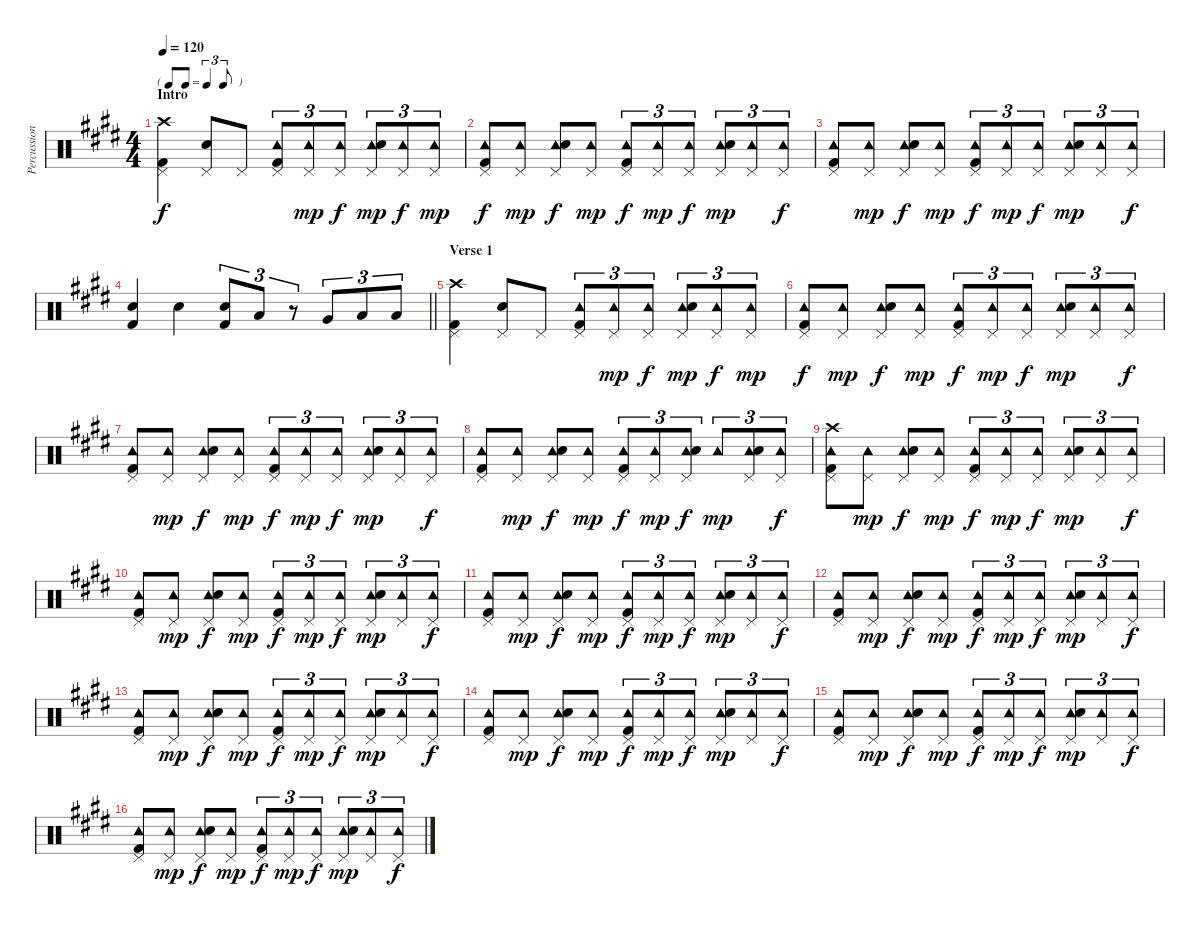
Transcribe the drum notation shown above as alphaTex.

\track ("Percussion" "Percussion") {instrument percussion}
\staff {score}
\articulation defaults
\ts (4 4)
\tf triplet8th
\section ("" "Intro")
\tempo 120
\clef neutral
\ks e
("Crash high (hit)" "Pedal Hi-Hat (hit)" "Kick (hit) 2").4{dy f} ("Pedal Hi-Hat (hit)" "Electric Snare (hit)").8 "Pedal Hi-Hat (hit)".8 ("Tambourine (hit)" "Pedal Hi-Hat (hit)" "Kick (hit) 2").8{tu (3 2)} ("Tambourine (hit)" "Pedal Hi-Hat (hit)").8{tu (3 2) dy mp} ("Tambourine (hit)" "Pedal Hi-Hat (hit)").8{tu (3 2) dy f} ("Tambourine (hit)" "Pedal Hi-Hat (hit)" "Electric Snare (hit)").8{tu (3 2) dy mp} ("Tambourine (hit)" "Pedal Hi-Hat (hit)").8{tu (3 2) dy f} ("Tambourine (hit)" "Pedal Hi-Hat (hit)").8{tu (3 2) dy mp} |
("Tambourine (hit)" "Pedal Hi-Hat (hit)" "Kick (hit) 2").8{dy f} ("Tambourine (hit)" "Pedal Hi-Hat (hit)").8{dy mp} ("Tambourine (hit)" "Pedal Hi-Hat (hit)" "Electric Snare (hit)").8{dy f} ("Tambourine (hit)" "Pedal Hi-Hat (hit)").8{dy mp} ("Tambourine (hit)" "Pedal Hi-Hat (hit)" "Kick (hit) 2").8{tu (3 2) dy f} ("Tambourine (hit)" "Pedal Hi-Hat (hit)").8{tu (3 2) dy mp} ("Tambourine (hit)" "Pedal Hi-Hat (hit)").8{tu (3 2) dy f} ("Tambourine (hit)" "Pedal Hi-Hat (hit)" "Electric Snare (hit)").8{tu (3 2) dy mp} ("Tambourine (hit)" "Pedal Hi-Hat (hit)").8{tu (3 2)} ("Tambourine (hit)" "Pedal Hi-Hat (hit)").8{tu (3 2) dy f} |
("Tambourine (hit)" "Pedal Hi-Hat (hit)" "Kick (hit) 2").8 ("Tambourine (hit)" "Pedal Hi-Hat (hit)").8{dy mp} ("Tambourine (hit)" "Pedal Hi-Hat (hit)" "Electric Snare (hit)").8{dy f} ("Tambourine (hit)" "Pedal Hi-Hat (hit)").8{dy mp} ("Tambourine (hit)" "Pedal Hi-Hat (hit)" "Kick (hit) 2").8{tu (3 2) dy f} ("Tambourine (hit)" "Pedal Hi-Hat (hit)").8{tu (3 2) dy mp} ("Tambourine (hit)" "Pedal Hi-Hat (hit)").8{tu (3 2) dy f} ("Tambourine (hit)" "Pedal Hi-Hat (hit)" "Electric Snare (hit)").8{tu (3 2) dy mp} ("Tambourine (hit)" "Pedal Hi-Hat (hit)").8{tu (3 2)} ("Tambourine (hit)" "Pedal Hi-Hat (hit)").8{tu (3 2) dy f} |
\barLineRight lightlight
("Electric Snare (hit)" "Kick (hit) 2").4 "Electric Snare (hit)".4 ("Electric Snare (hit)" "Kick (hit) 2").8{tu (3 2)} "Low Tom (hit)".8{tu (3 2)} r.8{tu (3 2)} "Very Low Tom (hit)".8{tu (3 2)} "Low Floor Tom (hit)".8{tu (3 2)} "Low Floor Tom (hit)".8{tu (3 2)} |
\section ("" "Verse 1")
("Crash high (hit)" "Pedal Hi-Hat (hit)" "Kick (hit) 2").4 ("Pedal Hi-Hat (hit)" "Electric Snare (hit)").8 "Pedal Hi-Hat (hit)".8 ("Tambourine (hit)" "Pedal Hi-Hat (hit)" "Kick (hit) 2").8{tu (3 2)} ("Tambourine (hit)" "Pedal Hi-Hat (hit)").8{tu (3 2) dy mp} ("Tambourine (hit)" "Pedal Hi-Hat (hit)").8{tu (3 2) dy f} ("Tambourine (hit)" "Pedal Hi-Hat (hit)" "Electric Snare (hit)").8{tu (3 2) dy mp} ("Tambourine (hit)" "Pedal Hi-Hat (hit)").8{tu (3 2) dy f} ("Tambourine (hit)" "Pedal Hi-Hat (hit)").8{tu (3 2) dy mp} |
("Tambourine (hit)" "Pedal Hi-Hat (hit)" "Kick (hit) 2").8{dy f} ("Tambourine (hit)" "Pedal Hi-Hat (hit)").8{dy mp} ("Tambourine (hit)" "Pedal Hi-Hat (hit)" "Electric Snare (hit)").8{dy f} ("Tambourine (hit)" "Pedal Hi-Hat (hit)").8{dy mp} ("Tambourine (hit)" "Pedal Hi-Hat (hit)" "Kick (hit) 2").8{tu (3 2) dy f} ("Tambourine (hit)" "Pedal Hi-Hat (hit)").8{tu (3 2) dy mp} ("Tambourine (hit)" "Pedal Hi-Hat (hit)").8{tu (3 2) dy f} ("Tambourine (hit)" "Pedal Hi-Hat (hit)" "Electric Snare (hit)").8{tu (3 2) dy mp} ("Tambourine (hit)" "Pedal Hi-Hat (hit)").8{tu (3 2)} ("Tambourine (hit)" "Pedal Hi-Hat (hit)").8{tu (3 2) dy f} |
("Tambourine (hit)" "Pedal Hi-Hat (hit)" "Kick (hit) 2").8 ("Tambourine (hit)" "Pedal Hi-Hat (hit)").8{dy mp} ("Tambourine (hit)" "Pedal Hi-Hat (hit)" "Electric Snare (hit)").8{dy f} ("Tambourine (hit)" "Pedal Hi-Hat (hit)").8{dy mp} ("Tambourine (hit)" "Pedal Hi-Hat (hit)" "Kick (hit) 2").8{tu (3 2) dy f} ("Tambourine (hit)" "Pedal Hi-Hat (hit)").8{tu (3 2) dy mp} ("Tambourine (hit)" "Pedal Hi-Hat (hit)").8{tu (3 2) dy f} ("Tambourine (hit)" "Pedal Hi-Hat (hit)" "Electric Snare (hit)").8{tu (3 2) dy mp} ("Tambourine (hit)" "Pedal Hi-Hat (hit)").8{tu (3 2)} ("Tambourine (hit)" "Pedal Hi-Hat (hit)").8{tu (3 2) dy f} |
("Tambourine (hit)" "Pedal Hi-Hat (hit)" "Kick (hit) 2").8 ("Tambourine (hit)" "Pedal Hi-Hat (hit)").8{dy mp} ("Tambourine (hit)" "Pedal Hi-Hat (hit)" "Electric Snare (hit)").8{dy f} ("Tambourine (hit)" "Pedal Hi-Hat (hit)").8{dy mp} ("Tambourine (hit)" "Pedal Hi-Hat (hit)" "Kick (hit) 2").8{tu (3 2) dy f} ("Tambourine (hit)" "Pedal Hi-Hat (hit)").8{tu (3 2) dy mp} ("Tambourine (hit)" "Pedal Hi-Hat (hit)" "Electric Snare (hit)").8{tu (3 2) dy f} "Tambourine (hit)".8{tu (3 2) dy mp} ("Tambourine (hit)" "Pedal Hi-Hat (hit)" "Electric Snare (hit)").8{tu (3 2)} ("Tambourine (hit)" "Pedal Hi-Hat (hit)").8{tu (3 2) dy f} |
("Tambourine (hit)" "Crash high (hit)" "Pedal Hi-Hat (hit)" "Kick (hit) 2").8 ("Tambourine (hit)" "Pedal Hi-Hat (hit)").8{dy mp} ("Tambourine (hit)" "Pedal Hi-Hat (hit)" "Electric Snare (hit)").8{dy f} ("Tambourine (hit)" "Pedal Hi-Hat (hit)").8{dy mp} ("Tambourine (hit)" "Pedal Hi-Hat (hit)" "Kick (hit) 2").8{tu (3 2) dy f} ("Tambourine (hit)" "Pedal Hi-Hat (hit)").8{tu (3 2) dy mp} ("Tambourine (hit)" "Pedal Hi-Hat (hit)").8{tu (3 2) dy f} ("Tambourine (hit)" "Pedal Hi-Hat (hit)" "Electric Snare (hit)").8{tu (3 2) dy mp} ("Tambourine (hit)" "Pedal Hi-Hat (hit)").8{tu (3 2)} ("Tambourine (hit)" "Pedal Hi-Hat (hit)").8{tu (3 2) dy f} |
("Tambourine (hit)" "Pedal Hi-Hat (hit)" "Kick (hit) 2").8 ("Tambourine (hit)" "Pedal Hi-Hat (hit)").8{dy mp} ("Tambourine (hit)" "Pedal Hi-Hat (hit)" "Electric Snare (hit)").8{dy f} ("Tambourine (hit)" "Pedal Hi-Hat (hit)").8{dy mp} ("Tambourine (hit)" "Pedal Hi-Hat (hit)" "Kick (hit) 2").8{tu (3 2) dy f} ("Tambourine (hit)" "Pedal Hi-Hat (hit)").8{tu (3 2) dy mp} ("Tambourine (hit)" "Pedal Hi-Hat (hit)").8{tu (3 2) dy f} ("Tambourine (hit)" "Pedal Hi-Hat (hit)" "Electric Snare (hit)").8{tu (3 2) dy mp} ("Tambourine (hit)" "Pedal Hi-Hat (hit)").8{tu (3 2)} ("Tambourine (hit)" "Pedal Hi-Hat (hit)").8{tu (3 2) dy f} |
("Tambourine (hit)" "Pedal Hi-Hat (hit)" "Kick (hit) 2").8 ("Tambourine (hit)" "Pedal Hi-Hat (hit)").8{dy mp} ("Tambourine (hit)" "Pedal Hi-Hat (hit)" "Electric Snare (hit)").8{dy f} ("Tambourine (hit)" "Pedal Hi-Hat (hit)").8{dy mp} ("Tambourine (hit)" "Pedal Hi-Hat (hit)" "Kick (hit) 2").8{tu (3 2) dy f} ("Tambourine (hit)" "Pedal Hi-Hat (hit)").8{tu (3 2) dy mp} ("Tambourine (hit)" "Pedal Hi-Hat (hit)").8{tu (3 2) dy f} ("Tambourine (hit)" "Pedal Hi-Hat (hit)" "Electric Snare (hit)").8{tu (3 2) dy mp} ("Tambourine (hit)" "Pedal Hi-Hat (hit)").8{tu (3 2)} ("Tambourine (hit)" "Pedal Hi-Hat (hit)").8{tu (3 2) dy f} |
("Tambourine (hit)" "Pedal Hi-Hat (hit)" "Kick (hit) 2").8 ("Tambourine (hit)" "Pedal Hi-Hat (hit)").8{dy mp} ("Tambourine (hit)" "Pedal Hi-Hat (hit)" "Electric Snare (hit)").8{dy f} ("Tambourine (hit)" "Pedal Hi-Hat (hit)").8{dy mp} ("Tambourine (hit)" "Pedal Hi-Hat (hit)" "Kick (hit) 2").8{tu (3 2) dy f} ("Tambourine (hit)" "Pedal Hi-Hat (hit)").8{tu (3 2) dy mp} ("Tambourine (hit)" "Pedal Hi-Hat (hit)").8{tu (3 2) dy f} ("Tambourine (hit)" "Pedal Hi-Hat (hit)" "Electric Snare (hit)").8{tu (3 2) dy mp} ("Tambourine (hit)" "Pedal Hi-Hat (hit)").8{tu (3 2)} ("Tambourine (hit)" "Pedal Hi-Hat (hit)").8{tu (3 2) dy f} |
("Tambourine (hit)" "Pedal Hi-Hat (hit)" "Kick (hit) 2").8 ("Tambourine (hit)" "Pedal Hi-Hat (hit)").8{dy mp} ("Tambourine (hit)" "Pedal Hi-Hat (hit)" "Electric Snare (hit)").8{dy f} ("Tambourine (hit)" "Pedal Hi-Hat (hit)").8{dy mp} ("Tambourine (hit)" "Pedal Hi-Hat (hit)" "Kick (hit) 2").8{tu (3 2) dy f} ("Tambourine (hit)" "Pedal Hi-Hat (hit)").8{tu (3 2) dy mp} ("Tambourine (hit)" "Pedal Hi-Hat (hit)").8{tu (3 2) dy f} ("Tambourine (hit)" "Pedal Hi-Hat (hit)" "Electric Snare (hit)").8{tu (3 2) dy mp} ("Tambourine (hit)" "Pedal Hi-Hat (hit)").8{tu (3 2)} ("Tambourine (hit)" "Pedal Hi-Hat (hit)").8{tu (3 2) dy f} |
("Tambourine (hit)" "Pedal Hi-Hat (hit)" "Kick (hit) 2").8 ("Tambourine (hit)" "Pedal Hi-Hat (hit)").8{dy mp} ("Tambourine (hit)" "Pedal Hi-Hat (hit)" "Electric Snare (hit)").8{dy f} ("Tambourine (hit)" "Pedal Hi-Hat (hit)").8{dy mp} ("Tambourine (hit)" "Pedal Hi-Hat (hit)" "Kick (hit) 2").8{tu (3 2) dy f} ("Tambourine (hit)" "Pedal Hi-Hat (hit)").8{tu (3 2) dy mp} ("Tambourine (hit)" "Pedal Hi-Hat (hit)").8{tu (3 2) dy f} ("Tambourine (hit)" "Pedal Hi-Hat (hit)" "Electric Snare (hit)").8{tu (3 2) dy mp} ("Tambourine (hit)" "Pedal Hi-Hat (hit)").8{tu (3 2)} ("Tambourine (hit)" "Pedal Hi-Hat (hit)").8{tu (3 2) dy f} |
("Tambourine (hit)" "Pedal Hi-Hat (hit)" "Kick (hit) 2").8 ("Tambourine (hit)" "Pedal Hi-Hat (hit)").8{dy mp} ("Tambourine (hit)" "Pedal Hi-Hat (hit)" "Electric Snare (hit)").8{dy f} ("Tambourine (hit)" "Pedal Hi-Hat (hit)").8{dy mp} ("Tambourine (hit)" "Pedal Hi-Hat (hit)" "Kick (hit) 2").8{tu (3 2) dy f} ("Tambourine (hit)" "Pedal Hi-Hat (hit)").8{tu (3 2) dy mp} ("Tambourine (hit)" "Pedal Hi-Hat (hit)").8{tu (3 2) dy f} ("Tambourine (hit)" "Pedal Hi-Hat (hit)" "Electric Snare (hit)").8{tu (3 2) dy mp} ("Tambourine (hit)" "Pedal Hi-Hat (hit)").8{tu (3 2)} ("Tambourine (hit)" "Pedal Hi-Hat (hit)").8{tu (3 2) dy f} |
("Tambourine (hit)" "Pedal Hi-Hat (hit)" "Kick (hit) 2").8 ("Tambourine (hit)" "Pedal Hi-Hat (hit)").8{dy mp} ("Tambourine (hit)" "Pedal Hi-Hat (hit)" "Electric Snare (hit)").8{dy f} ("Tambourine (hit)" "Pedal Hi-Hat (hit)").8{dy mp} ("Tambourine (hit)" "Pedal Hi-Hat (hit)" "Kick (hit) 2").8{tu (3 2) dy f} ("Tambourine (hit)" "Pedal Hi-Hat (hit)").8{tu (3 2) dy mp} ("Tambourine (hit)" "Pedal Hi-Hat (hit)").8{tu (3 2) dy f} ("Tambourine (hit)" "Pedal Hi-Hat (hit)" "Electric Snare (hit)").8{tu (3 2) dy mp} ("Tambourine (hit)" "Pedal Hi-Hat (hit)").8{tu (3 2)} ("Tambourine (hit)" "Pedal Hi-Hat (hit)").8{tu (3 2) dy f}
